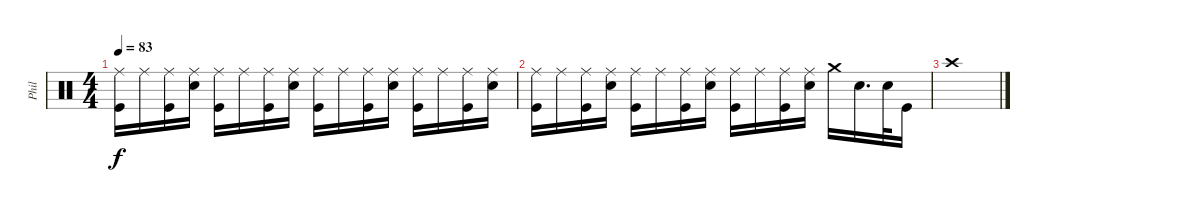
\track ("Phil" "Phil") {instrument percussion}
\staff {score}
\articulation defaults
\ts (4 4)
\tempo 83
\clef neutral
\ks c
("Ride (middle)" "Kick (hit)").16{dy f} "Ride (middle)".16 ("Ride (middle)" "Kick (hit)").16 ("Ride (middle)" "Snare (hit) 2").16 ("Ride (middle)" "Kick (hit)").16 "Ride (middle)".16 ("Ride (middle)" "Kick (hit)").16 ("Ride (middle)" "Snare (hit) 2").16 ("Ride (middle)" "Kick (hit)").16 "Ride (middle)".16 ("Ride (middle)" "Kick (hit)").16 ("Ride (middle)" "Snare (hit) 2").16 ("Ride (middle)" "Kick (hit)").16 "Ride (middle)".16 ("Ride (middle)" "Kick (hit)").16 ("Ride (middle)" "Snare (hit) 2").16 |
("Ride (middle)" "Kick (hit)").16 "Ride (middle)".16 ("Ride (middle)" "Kick (hit)").16 ("Ride (middle)" "Snare (hit) 2").16 ("Ride (middle)" "Kick (hit)").16 "Ride (middle)".16 ("Ride (middle)" "Kick (hit)").16 ("Ride (middle)" "Snare (hit) 2").16 ("Ride (middle)" "Kick (hit)").16 "Ride (middle)".16 ("Ride (middle)" "Kick (hit)").16 ("Ride (middle)" "Snare (hit) 2").16 "Crash medium (hit)".16 "Snare (hit) 2".16{d} "Snare (hit) 2".32 "Kick (hit)".16 |
"Crash high (hit)".1
